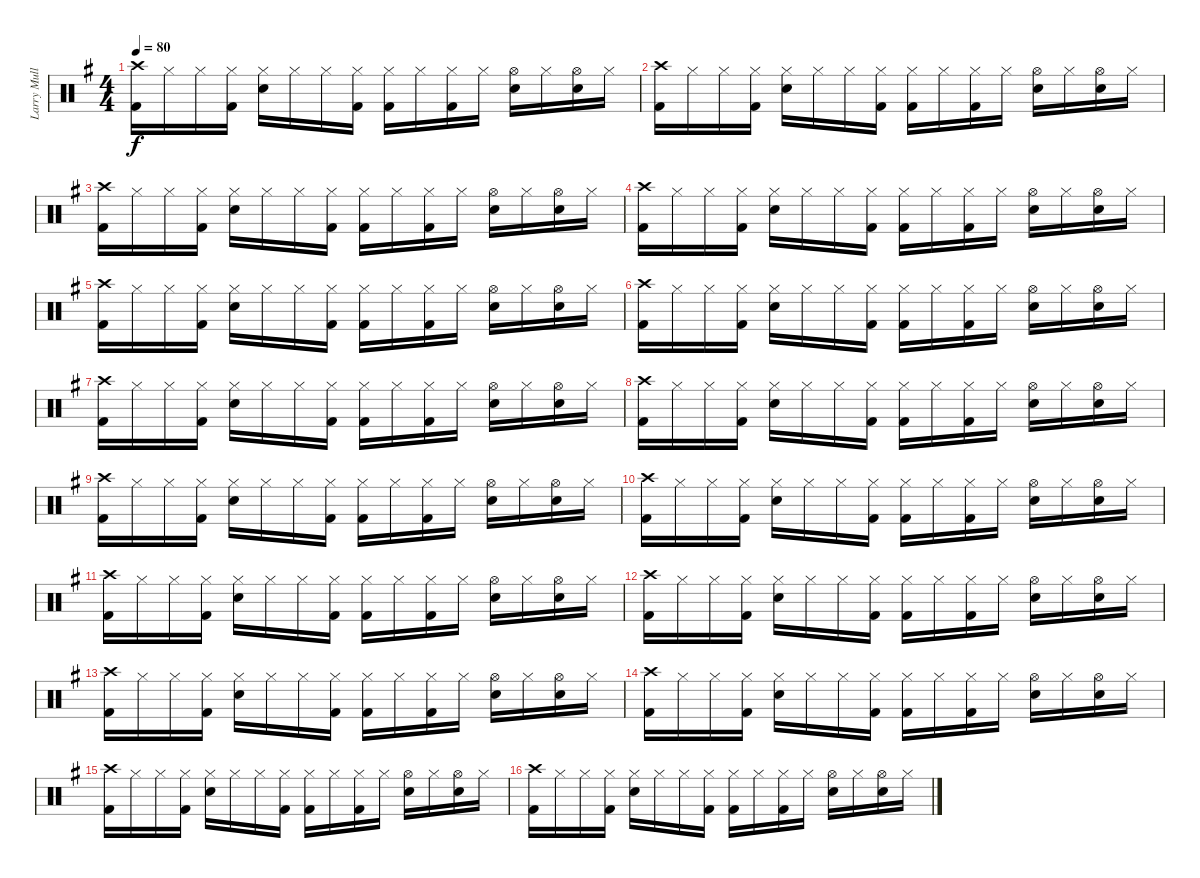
\track ("Larry Mullen Jr" "Larry Mull") {instrument percussion}
\staff {score}
\articulation defaults
\ts (4 4)
\tempo 80
\clef neutral
\ks g
("Crash high (hit)" "Kick (hit) 2").16{dy f} "Hi-Hat (closed)".16 "Hi-Hat (closed)".16 ("Hi-Hat (closed)" "Kick (hit) 2").16 ("Hi-Hat (closed)" "Snare (hit) 2").16 "Hi-Hat (closed)".16 "Hi-Hat (closed)".16 ("Hi-Hat (closed)" "Kick (hit) 2").16 ("Hi-Hat (closed)" "Kick (hit) 2").16 "Hi-Hat (closed)".16 ("Hi-Hat (closed)" "Kick (hit) 2").16 "Hi-Hat (closed)".16 ("Hi-Hat (open)" "Snare (hit) 2").16 "Hi-Hat (closed)".16 ("Hi-Hat (open)" "Snare (hit) 2").16 "Hi-Hat (closed)".16 |
("Crash high (hit)" "Kick (hit) 2").16 "Hi-Hat (closed)".16 "Hi-Hat (closed)".16 ("Hi-Hat (closed)" "Kick (hit) 2").16 ("Hi-Hat (closed)" "Snare (hit) 2").16 "Hi-Hat (closed)".16 "Hi-Hat (closed)".16 ("Hi-Hat (closed)" "Kick (hit) 2").16 ("Hi-Hat (closed)" "Kick (hit) 2").16 "Hi-Hat (closed)".16 ("Hi-Hat (closed)" "Kick (hit) 2").16 "Hi-Hat (closed)".16 ("Hi-Hat (open)" "Snare (hit) 2").16 "Hi-Hat (closed)".16 ("Hi-Hat (open)" "Snare (hit) 2").16 "Hi-Hat (closed)".16 |
("Crash high (hit)" "Kick (hit) 2").16 "Hi-Hat (closed)".16 "Hi-Hat (closed)".16 ("Hi-Hat (closed)" "Kick (hit) 2").16 ("Hi-Hat (closed)" "Snare (hit) 2").16 "Hi-Hat (closed)".16 "Hi-Hat (closed)".16 ("Hi-Hat (closed)" "Kick (hit) 2").16 ("Hi-Hat (closed)" "Kick (hit) 2").16 "Hi-Hat (closed)".16 ("Hi-Hat (closed)" "Kick (hit) 2").16 "Hi-Hat (closed)".16 ("Hi-Hat (open)" "Snare (hit) 2").16 "Hi-Hat (closed)".16 ("Hi-Hat (open)" "Snare (hit) 2").16 "Hi-Hat (closed)".16 |
("Crash high (hit)" "Kick (hit) 2").16 "Hi-Hat (closed)".16 "Hi-Hat (closed)".16 ("Hi-Hat (closed)" "Kick (hit) 2").16 ("Hi-Hat (closed)" "Snare (hit) 2").16 "Hi-Hat (closed)".16 "Hi-Hat (closed)".16 ("Hi-Hat (closed)" "Kick (hit) 2").16 ("Hi-Hat (closed)" "Kick (hit) 2").16 "Hi-Hat (closed)".16 ("Hi-Hat (closed)" "Kick (hit) 2").16 "Hi-Hat (closed)".16 ("Hi-Hat (open)" "Snare (hit) 2").16 "Hi-Hat (closed)".16 ("Hi-Hat (open)" "Snare (hit) 2").16 "Hi-Hat (closed)".16 |
("Crash high (hit)" "Kick (hit) 2").16 "Hi-Hat (closed)".16 "Hi-Hat (closed)".16 ("Hi-Hat (closed)" "Kick (hit) 2").16 ("Hi-Hat (closed)" "Snare (hit) 2").16 "Hi-Hat (closed)".16 "Hi-Hat (closed)".16 ("Hi-Hat (closed)" "Kick (hit) 2").16 ("Hi-Hat (closed)" "Kick (hit) 2").16 "Hi-Hat (closed)".16 ("Hi-Hat (closed)" "Kick (hit) 2").16 "Hi-Hat (closed)".16 ("Hi-Hat (open)" "Snare (hit) 2").16 "Hi-Hat (closed)".16 ("Hi-Hat (open)" "Snare (hit) 2").16 "Hi-Hat (closed)".16 |
("Crash high (hit)" "Kick (hit) 2").16 "Hi-Hat (closed)".16 "Hi-Hat (closed)".16 ("Hi-Hat (closed)" "Kick (hit) 2").16 ("Hi-Hat (closed)" "Snare (hit) 2").16 "Hi-Hat (closed)".16 "Hi-Hat (closed)".16 ("Hi-Hat (closed)" "Kick (hit) 2").16 ("Hi-Hat (closed)" "Kick (hit) 2").16 "Hi-Hat (closed)".16 ("Hi-Hat (closed)" "Kick (hit) 2").16 "Hi-Hat (closed)".16 ("Hi-Hat (open)" "Snare (hit) 2").16 "Hi-Hat (closed)".16 ("Hi-Hat (open)" "Snare (hit) 2").16 "Hi-Hat (closed)".16 |
("Crash high (hit)" "Kick (hit) 2").16 "Hi-Hat (closed)".16 "Hi-Hat (closed)".16 ("Hi-Hat (closed)" "Kick (hit) 2").16 ("Hi-Hat (closed)" "Snare (hit) 2").16 "Hi-Hat (closed)".16 "Hi-Hat (closed)".16 ("Hi-Hat (closed)" "Kick (hit) 2").16 ("Hi-Hat (closed)" "Kick (hit) 2").16 "Hi-Hat (closed)".16 ("Hi-Hat (closed)" "Kick (hit) 2").16 "Hi-Hat (closed)".16 ("Hi-Hat (open)" "Snare (hit) 2").16 "Hi-Hat (closed)".16 ("Hi-Hat (open)" "Snare (hit) 2").16 "Hi-Hat (closed)".16 |
("Crash high (hit)" "Kick (hit) 2").16 "Hi-Hat (closed)".16 "Hi-Hat (closed)".16 ("Hi-Hat (closed)" "Kick (hit) 2").16 ("Hi-Hat (closed)" "Snare (hit) 2").16 "Hi-Hat (closed)".16 "Hi-Hat (closed)".16 ("Hi-Hat (closed)" "Kick (hit) 2").16 ("Hi-Hat (closed)" "Kick (hit) 2").16 "Hi-Hat (closed)".16 ("Hi-Hat (closed)" "Kick (hit) 2").16 "Hi-Hat (closed)".16 ("Hi-Hat (open)" "Snare (hit) 2").16 "Hi-Hat (closed)".16 ("Hi-Hat (open)" "Snare (hit) 2").16 "Hi-Hat (closed)".16 |
("Crash high (hit)" "Kick (hit) 2").16 "Hi-Hat (closed)".16 "Hi-Hat (closed)".16 ("Hi-Hat (closed)" "Kick (hit) 2").16 ("Hi-Hat (closed)" "Snare (hit) 2").16 "Hi-Hat (closed)".16 "Hi-Hat (closed)".16 ("Hi-Hat (closed)" "Kick (hit) 2").16 ("Hi-Hat (closed)" "Kick (hit) 2").16 "Hi-Hat (closed)".16 ("Hi-Hat (closed)" "Kick (hit) 2").16 "Hi-Hat (closed)".16 ("Hi-Hat (open)" "Snare (hit) 2").16 "Hi-Hat (closed)".16 ("Hi-Hat (open)" "Snare (hit) 2").16 "Hi-Hat (closed)".16 |
("Crash high (hit)" "Kick (hit) 2").16 "Hi-Hat (closed)".16 "Hi-Hat (closed)".16 ("Hi-Hat (closed)" "Kick (hit) 2").16 ("Hi-Hat (closed)" "Snare (hit) 2").16 "Hi-Hat (closed)".16 "Hi-Hat (closed)".16 ("Hi-Hat (closed)" "Kick (hit) 2").16 ("Hi-Hat (closed)" "Kick (hit) 2").16 "Hi-Hat (closed)".16 ("Hi-Hat (closed)" "Kick (hit) 2").16 "Hi-Hat (closed)".16 ("Hi-Hat (open)" "Snare (hit) 2").16 "Hi-Hat (closed)".16 ("Hi-Hat (open)" "Snare (hit) 2").16 "Hi-Hat (closed)".16 |
("Crash high (hit)" "Kick (hit) 2").16 "Hi-Hat (closed)".16 "Hi-Hat (closed)".16 ("Hi-Hat (closed)" "Kick (hit) 2").16 ("Hi-Hat (closed)" "Snare (hit) 2").16 "Hi-Hat (closed)".16 "Hi-Hat (closed)".16 ("Hi-Hat (closed)" "Kick (hit) 2").16 ("Hi-Hat (closed)" "Kick (hit) 2").16 "Hi-Hat (closed)".16 ("Hi-Hat (closed)" "Kick (hit) 2").16 "Hi-Hat (closed)".16 ("Hi-Hat (open)" "Snare (hit) 2").16 "Hi-Hat (closed)".16 ("Hi-Hat (open)" "Snare (hit) 2").16 "Hi-Hat (closed)".16 |
("Crash high (hit)" "Kick (hit) 2").16 "Hi-Hat (closed)".16 "Hi-Hat (closed)".16 ("Hi-Hat (closed)" "Kick (hit) 2").16 ("Hi-Hat (closed)" "Snare (hit) 2").16 "Hi-Hat (closed)".16 "Hi-Hat (closed)".16 ("Hi-Hat (closed)" "Kick (hit) 2").16 ("Hi-Hat (closed)" "Kick (hit) 2").16 "Hi-Hat (closed)".16 ("Hi-Hat (closed)" "Kick (hit) 2").16 "Hi-Hat (closed)".16 ("Hi-Hat (open)" "Snare (hit) 2").16 "Hi-Hat (closed)".16 ("Hi-Hat (open)" "Snare (hit) 2").16 "Hi-Hat (closed)".16 |
("Crash high (hit)" "Kick (hit) 2").16 "Hi-Hat (closed)".16 "Hi-Hat (closed)".16 ("Hi-Hat (closed)" "Kick (hit) 2").16 ("Hi-Hat (closed)" "Snare (hit) 2").16 "Hi-Hat (closed)".16 "Hi-Hat (closed)".16 ("Hi-Hat (closed)" "Kick (hit) 2").16 ("Hi-Hat (closed)" "Kick (hit) 2").16 "Hi-Hat (closed)".16 ("Hi-Hat (closed)" "Kick (hit) 2").16 "Hi-Hat (closed)".16 ("Hi-Hat (open)" "Snare (hit) 2").16 "Hi-Hat (closed)".16 ("Hi-Hat (open)" "Snare (hit) 2").16 "Hi-Hat (closed)".16 |
("Crash high (hit)" "Kick (hit) 2").16 "Hi-Hat (closed)".16 "Hi-Hat (closed)".16 ("Hi-Hat (closed)" "Kick (hit) 2").16 ("Hi-Hat (closed)" "Snare (hit) 2").16 "Hi-Hat (closed)".16 "Hi-Hat (closed)".16 ("Hi-Hat (closed)" "Kick (hit) 2").16 ("Hi-Hat (closed)" "Kick (hit) 2").16 "Hi-Hat (closed)".16 ("Hi-Hat (closed)" "Kick (hit) 2").16 "Hi-Hat (closed)".16 ("Hi-Hat (open)" "Snare (hit) 2").16 "Hi-Hat (closed)".16 ("Hi-Hat (open)" "Snare (hit) 2").16 "Hi-Hat (closed)".16 |
("Crash high (hit)" "Kick (hit) 2").16 "Hi-Hat (closed)".16 "Hi-Hat (closed)".16 ("Hi-Hat (closed)" "Kick (hit) 2").16 ("Hi-Hat (closed)" "Snare (hit) 2").16 "Hi-Hat (closed)".16 "Hi-Hat (closed)".16 ("Hi-Hat (closed)" "Kick (hit) 2").16 ("Hi-Hat (closed)" "Kick (hit) 2").16 "Hi-Hat (closed)".16 ("Hi-Hat (closed)" "Kick (hit) 2").16 "Hi-Hat (closed)".16 ("Hi-Hat (open)" "Snare (hit) 2").16 "Hi-Hat (closed)".16 ("Hi-Hat (open)" "Snare (hit) 2").16 "Hi-Hat (closed)".16 |
("Crash high (hit)" "Kick (hit) 2").16 "Hi-Hat (closed)".16 "Hi-Hat (closed)".16 ("Hi-Hat (closed)" "Kick (hit) 2").16 ("Hi-Hat (closed)" "Snare (hit) 2").16 "Hi-Hat (closed)".16 "Hi-Hat (closed)".16 ("Hi-Hat (closed)" "Kick (hit) 2").16 ("Hi-Hat (closed)" "Kick (hit) 2").16 "Hi-Hat (closed)".16 ("Hi-Hat (closed)" "Kick (hit) 2").16 "Hi-Hat (closed)".16 ("Hi-Hat (open)" "Snare (hit) 2").16 "Hi-Hat (closed)".16 ("Hi-Hat (open)" "Snare (hit) 2").16 "Hi-Hat (closed)".16
